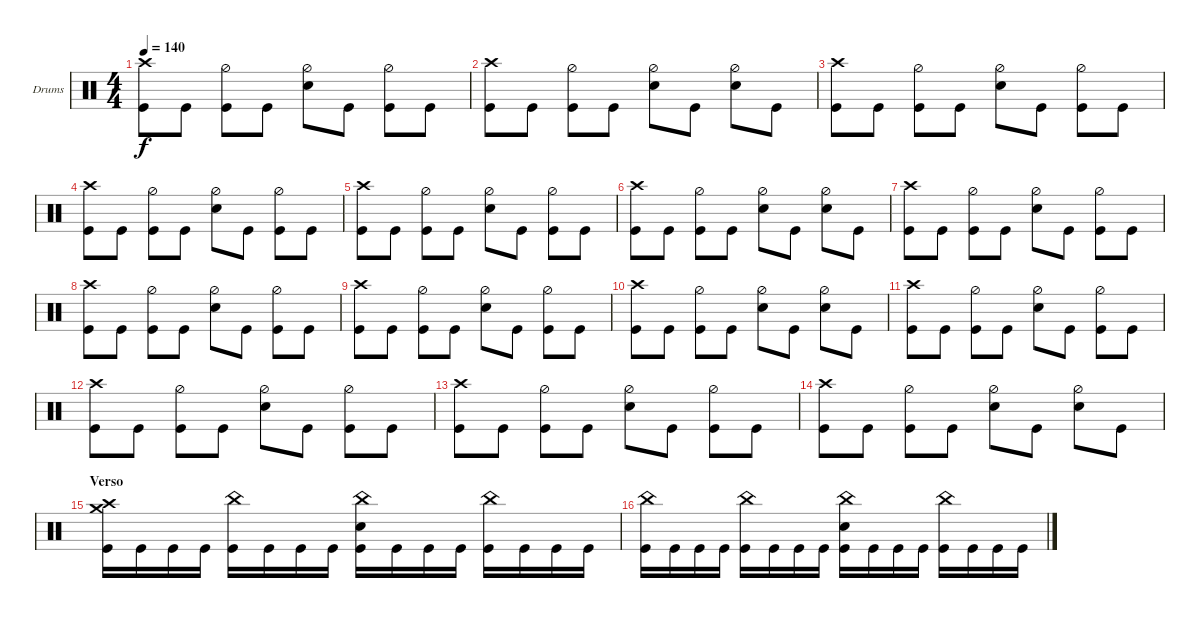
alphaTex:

\defaultSystemsLayout 4
\bracketExtendMode groupsimilarinstruments
\firstSystemTrackNameOrientation horizontal
\otherSystemsTrackNameOrientation horizontal
\track ("Drumkit" "Drums") {instrument percussion}
\staff {score}
\articulation defaults
\ts (4 4)
\tempo 140
\clef neutral
\ks c
("Kick (hit)" "Crash high (hit)").8{dy f} "Kick (hit)".8 ("Kick (hit)" "Hi-Hat (half)").8 "Kick (hit)".8 ("Snare (hit) 2" "Hi-Hat (half)").8 "Kick (hit)".8 ("Kick (hit)" "Hi-Hat (half)").8 "Kick (hit)".8 |
("Kick (hit)" "Crash high (hit)").8 "Kick (hit)".8 ("Kick (hit)" "Hi-Hat (half)").8 "Kick (hit)".8 ("Snare (hit) 2" "Hi-Hat (half)").8 "Kick (hit)".8 ("Snare (hit) 2" "Hi-Hat (half)").8 "Kick (hit)".8 |
("Kick (hit)" "Crash high (hit)").8 "Kick (hit)".8 ("Kick (hit)" "Hi-Hat (half)").8 "Kick (hit)".8 ("Snare (hit) 2" "Hi-Hat (half)").8 "Kick (hit)".8 ("Kick (hit)" "Hi-Hat (half)").8 "Kick (hit)".8 |
("Kick (hit)" "Crash high (hit)").8 "Kick (hit)".8 ("Kick (hit)" "Hi-Hat (half)").8 "Kick (hit)".8 ("Snare (hit) 2" "Hi-Hat (half)").8 "Kick (hit)".8 ("Kick (hit)" "Hi-Hat (half)").8 "Kick (hit)".8 |
("Kick (hit)" "Crash high (hit)").8 "Kick (hit)".8 ("Kick (hit)" "Hi-Hat (half)").8 "Kick (hit)".8 ("Snare (hit) 2" "Hi-Hat (half)").8 "Kick (hit)".8 ("Kick (hit)" "Hi-Hat (half)").8 "Kick (hit)".8 |
("Kick (hit)" "Crash high (hit)").8 "Kick (hit)".8 ("Kick (hit)" "Hi-Hat (half)").8 "Kick (hit)".8 ("Snare (hit) 2" "Hi-Hat (half)").8 "Kick (hit)".8 ("Snare (hit) 2" "Hi-Hat (half)").8 "Kick (hit)".8 |
("Kick (hit)" "Crash high (hit)").8 "Kick (hit)".8 ("Kick (hit)" "Hi-Hat (half)").8 "Kick (hit)".8 ("Snare (hit) 2" "Hi-Hat (half)").8 "Kick (hit)".8 ("Kick (hit)" "Hi-Hat (half)").8 "Kick (hit)".8 |
("Kick (hit)" "Crash high (hit)").8 "Kick (hit)".8 ("Kick (hit)" "Hi-Hat (half)").8 "Kick (hit)".8 ("Snare (hit) 2" "Hi-Hat (half)").8 "Kick (hit)".8 ("Kick (hit)" "Hi-Hat (half)").8 "Kick (hit)".8 |
("Kick (hit)" "Crash high (hit)").8 "Kick (hit)".8 ("Kick (hit)" "Hi-Hat (half)").8 "Kick (hit)".8 ("Snare (hit) 2" "Hi-Hat (half)").8 "Kick (hit)".8 ("Kick (hit)" "Hi-Hat (half)").8 "Kick (hit)".8 |
("Kick (hit)" "Crash high (hit)").8 "Kick (hit)".8 ("Kick (hit)" "Hi-Hat (half)").8 "Kick (hit)".8 ("Snare (hit) 2" "Hi-Hat (half)").8 "Kick (hit)".8 ("Snare (hit) 2" "Hi-Hat (half)").8 "Kick (hit)".8 |
("Kick (hit)" "Crash high (hit)").8 "Kick (hit)".8 ("Kick (hit)" "Hi-Hat (half)").8 "Kick (hit)".8 ("Snare (hit) 2" "Hi-Hat (half)").8 "Kick (hit)".8 ("Kick (hit)" "Hi-Hat (half)").8 "Kick (hit)".8 |
("Kick (hit)" "Crash high (hit)").8 "Kick (hit)".8 ("Kick (hit)" "Hi-Hat (half)").8 "Kick (hit)".8 ("Snare (hit) 2" "Hi-Hat (half)").8 "Kick (hit)".8 ("Kick (hit)" "Hi-Hat (half)").8 "Kick (hit)".8 |
("Kick (hit)" "Crash high (hit)").8 "Kick (hit)".8 ("Kick (hit)" "Hi-Hat (half)").8 "Kick (hit)".8 ("Snare (hit) 2" "Hi-Hat (half)").8 "Kick (hit)".8 ("Kick (hit)" "Hi-Hat (half)").8 "Kick (hit)".8 |
("Kick (hit)" "Crash high (hit)").8 "Kick (hit)".8 ("Kick (hit)" "Hi-Hat (half)").8 "Kick (hit)".8 ("Snare (hit) 2" "Hi-Hat (half)").8 "Kick (hit)".8 ("Snare (hit) 2" "Hi-Hat (half)").8 "Kick (hit)".8 |
\section ("" "Verso")
("Kick (hit)" "Crash high (hit)" "Crash medium (hit)").16 "Kick (hit)".16 "Kick (hit)".16 "Kick (hit)".16 ("Kick (hit)" "China (hit)").16 "Kick (hit)".16 "Kick (hit)".16 "Kick (hit)".16 ("Kick (hit)" "Snare (hit) 2" "China (hit)").16 "Kick (hit)".16 "Kick (hit)".16 "Kick (hit)".16 ("Kick (hit)" "China (hit)").16 "Kick (hit)".16 "Kick (hit)".16 "Kick (hit)".16 |
("Kick (hit)" "China (hit)").16 "Kick (hit)".16 "Kick (hit)".16 "Kick (hit)".16 ("Kick (hit)" "China (hit)").16 "Kick (hit)".16 "Kick (hit)".16 "Kick (hit)".16 ("Kick (hit)" "Snare (hit) 2" "China (hit)").16 "Kick (hit)".16 "Kick (hit)".16 "Kick (hit)".16 ("Kick (hit)" "China (hit)").16 "Kick (hit)".16 "Kick (hit)".16 "Kick (hit)".16
